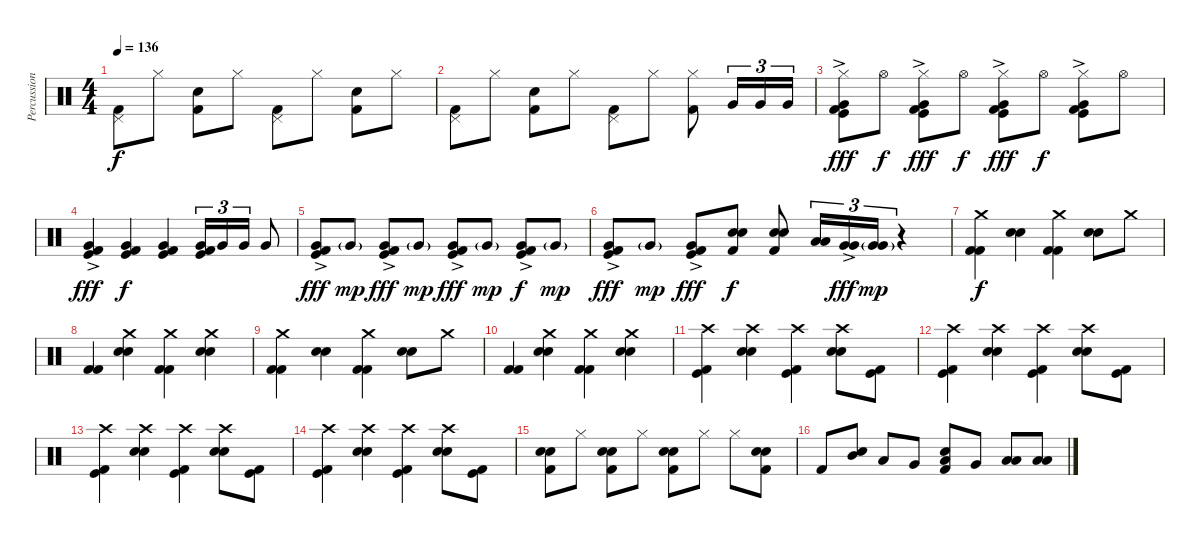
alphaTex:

\track ("Percussion" "Percussion") {instrument percussion}
\staff {score}
\articulation defaults
\ts (4 4)
\tempo 136
\clef neutral
\ks c
("Pedal Hi-Hat (hit)" "Kick (hit) 2").8{dy f} "Hi-Hat (closed)".8 ("Snare (hit) 2" "Kick (hit) 2").8 "Hi-Hat (closed)".8 ("Pedal Hi-Hat (hit)" "Kick (hit) 2").8 "Hi-Hat (closed)".8 ("Snare (hit) 2" "Kick (hit) 2").8 "Hi-Hat (closed)".8 |
("Pedal Hi-Hat (hit)" "Kick (hit) 2").8 "Hi-Hat (closed)".8 ("Snare (hit) 2" "Kick (hit) 2").8 "Hi-Hat (closed)".8 ("Pedal Hi-Hat (hit)" "Kick (hit) 2").8 "Hi-Hat (closed)".8 ("Hi-Hat (closed)" "Kick (hit) 2").8 "Very Low Tom (hit)".16{tu (3 2)} "Very Low Tom (hit)".16{tu (3 2)} "Very Low Tom (hit)".16{tu (3 2)} |
("Hi-Hat (closed)" "Very Low Tom (hit)"{ac} "Kick (hit)" "Kick (hit) 2").8{dy fff} "Hi-Hat (open)".8{dy f} ("Hi-Hat (closed)" "Very Low Tom (hit)"{ac} "Kick (hit)" "Kick (hit) 2").8{dy fff} "Hi-Hat (open)".8{dy f} ("Hi-Hat (closed)" "Very Low Tom (hit)"{ac} "Kick (hit)" "Kick (hit) 2").8{dy fff} "Hi-Hat (open)".8{dy f} ("Hi-Hat (closed)" "Very Low Tom (hit)"{ac} "Kick (hit)" "Kick (hit) 2").8 "Hi-Hat (open)".8 |
("Very Low Tom (hit)"{ac} "Kick (hit)" "Kick (hit) 2").4{dy fff} ("Very Low Tom (hit)" "Kick (hit)" "Kick (hit) 2").4{dy f} ("Very Low Tom (hit)" "Kick (hit)" "Kick (hit) 2").4 ("Very Low Tom (hit)" "Kick (hit)" "Kick (hit) 2").16{tu (3 2)} "Very Low Tom (hit)".16{tu (3 2)} "Very Low Tom (hit)".16{tu (3 2)} "Very Low Tom (hit)".8 |
("Very Low Tom (hit)"{ac} "Kick (hit)" "Kick (hit) 2").8{dy fff} "Very Low Tom (hit)"{g}.8{dy mp} ("Very Low Tom (hit)"{ac} "Kick (hit)" "Kick (hit) 2").8{dy fff} "Very Low Tom (hit)"{g}.8{dy mp} ("Very Low Tom (hit)"{ac} "Kick (hit)" "Kick (hit) 2").8{dy fff} "Very Low Tom (hit)"{g}.8{dy mp} ("Very Low Tom (hit)"{ac} "Kick (hit)" "Kick (hit) 2").8{dy f} "Very Low Tom (hit)"{g}.8{dy mp} |
("Very Low Tom (hit)"{ac} "Kick (hit)" "Kick (hit) 2").8{dy fff} "Very Low Tom (hit)"{g}.8{dy mp} ("Very Low Tom (hit)"{ac} "Kick (hit)" "Kick (hit) 2").8{dy fff} ("Snare (hit) 2" "Snare (hit) 2" "Kick (hit) 2").8{dy f} ("Snare (hit) 2" "Snare (hit) 2" "Kick (hit) 2").8 ("Low Tom (hit)" "Low Tom (hit)").16{tu (3 2)} ("Very Low Tom (hit)" "Very Low Tom (hit)"{ac}).16{tu (3 2) dy fff} ("Very Low Tom (hit)" "Very Low Tom (hit)"{g}).16{tu (3 2) dy mp} r.4 |
("Crash medium (hit)" "Kick (hit) 2" "Kick (hit) 2").4{dy f} ("Snare (hit) 2" "Snare (hit) 2").4 ("Crash medium (hit)" "Kick (hit) 2" "Kick (hit) 2").4 ("Snare (hit) 2" "Snare (hit) 2").8 "Crash medium (hit)".8 |
("Kick (hit) 2" "Kick (hit) 2").4 ("Crash medium (hit)" "Snare (hit) 2" "Snare (hit) 2").4 ("Crash medium (hit)" "Kick (hit) 2" "Kick (hit) 2").4 ("Crash medium (hit)" "Snare (hit) 2" "Snare (hit) 2").4 |
("Crash medium (hit)" "Kick (hit) 2" "Kick (hit) 2").4 ("Snare (hit) 2" "Snare (hit) 2").4 ("Crash medium (hit)" "Kick (hit) 2" "Kick (hit) 2").4 ("Snare (hit) 2" "Snare (hit) 2").8 "Crash medium (hit)".8 |
("Kick (hit) 2" "Kick (hit) 2").4 ("Crash medium (hit)" "Snare (hit) 2" "Snare (hit) 2").4 ("Crash medium (hit)" "Kick (hit) 2" "Kick (hit) 2").4 ("Crash medium (hit)" "Snare (hit) 2" "Snare (hit) 2").4 |
("Crash high (hit)" "Kick (hit)" "Kick (hit) 2").4 ("Crash high (hit)" "Snare (hit) 2" "Snare (hit) 2").4 ("Crash high (hit)" "Kick (hit)" "Kick (hit) 2").4 ("Crash high (hit)" "Snare (hit) 2" "Snare (hit) 2").8 ("Kick (hit)" "Kick (hit) 2").8 |
("Crash high (hit)" "Kick (hit)" "Kick (hit) 2").4 ("Crash high (hit)" "Snare (hit) 2" "Snare (hit) 2").4 ("Crash high (hit)" "Kick (hit)" "Kick (hit) 2").4 ("Crash high (hit)" "Snare (hit) 2" "Snare (hit) 2").8 ("Kick (hit)" "Kick (hit) 2").8 |
("Crash high (hit)" "Kick (hit)" "Kick (hit) 2").4 ("Crash high (hit)" "Snare (hit) 2" "Snare (hit) 2").4 ("Crash high (hit)" "Kick (hit)" "Kick (hit) 2").4 ("Crash high (hit)" "Snare (hit) 2" "Snare (hit) 2").8 ("Kick (hit)" "Kick (hit) 2").8 |
("Crash high (hit)" "Kick (hit)" "Kick (hit) 2").4 ("Crash high (hit)" "Snare (hit) 2" "Snare (hit) 2").4 ("Crash high (hit)" "Kick (hit)" "Kick (hit) 2").4 ("Crash high (hit)" "Snare (hit) 2" "Snare (hit) 2").8 ("Kick (hit)" "Kick (hit) 2").8 |
("Snare (hit) 2" "Snare (hit) 2" "Kick (hit) 2").8 "Hi-Hat (closed)".8 ("Snare (hit) 2" "Snare (hit) 2" "Kick (hit) 2").8 "Hi-Hat (closed)".8 ("Snare (hit) 2" "Snare (hit) 2" "Kick (hit) 2").8 "Hi-Hat (closed)".8 "Hi-Hat (closed)".8 ("Snare (hit) 2" "Snare (hit) 2" "Kick (hit) 2").8 |
"Kick (hit) 2".8 ("Mid Tom (hit)" "Snare (hit) 2").8 "Low Tom (hit)".8 "Very Low Tom (hit)".8 ("Low Tom (hit)" "Snare (hit) 2" "Kick (hit) 2").8 "Very Low Tom (hit)".8 ("Low Floor Tom (hit)" "Low Floor Tom (hit)").8 ("Low Floor Tom (hit)" "Low Floor Tom (hit)").8
